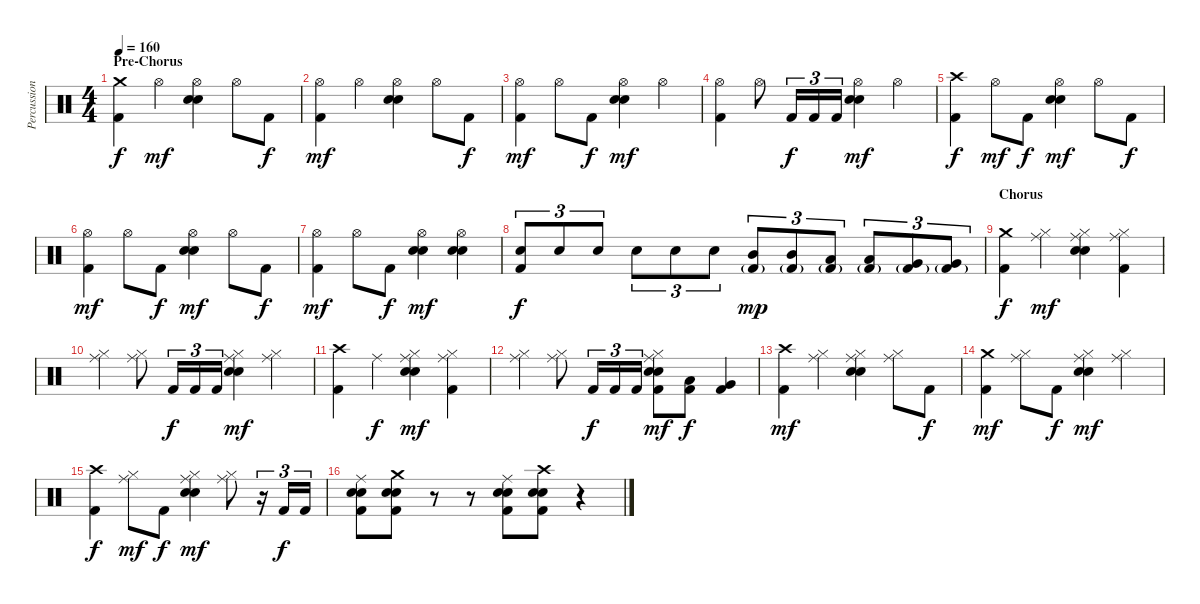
\track ("Percussion" "Percussion") {instrument percussion}
\staff {score}
\articulation defaults
\ts (4 4)
\section ("" "Pre-Chorus")
\tempo 160
\clef neutral
\ks c
("Crash medium (hit)" "Kick (hit) 2").4{dy f} "Hi-Hat (open)".4{dy mf} ("Hi-Hat (open)" "Snare (hit) 2" "Electric Snare (hit)").4 "Hi-Hat (open)".8 "Kick (hit) 2".8{dy f} |
("Hi-Hat (open)" "Kick (hit) 2").4{dy mf} "Hi-Hat (open)".4 ("Hi-Hat (open)" "Snare (hit) 2" "Electric Snare (hit)").4 "Hi-Hat (open)".8 "Kick (hit) 2".8{dy f} |
("Hi-Hat (open)" "Kick (hit) 2").4{dy mf} "Hi-Hat (open)".8 "Kick (hit) 2".8{dy f} ("Hi-Hat (open)" "Snare (hit) 2" "Electric Snare (hit)").4{dy mf} "Hi-Hat (open)".4 |
("Hi-Hat (open)" "Kick (hit) 2").4 "Hi-Hat (open)".8 "Kick (hit) 2".16{tu (3 2) dy f} "Kick (hit) 2".16{tu (3 2)} "Kick (hit) 2".16{tu (3 2)} ("Hi-Hat (open)" "Snare (hit) 2" "Electric Snare (hit)").4{dy mf} "Hi-Hat (open)".4 |
("Crash high (hit)" "Kick (hit) 2").4{dy f} "Hi-Hat (open)".8{dy mf} "Kick (hit) 2".8{dy f} ("Hi-Hat (open)" "Snare (hit) 2" "Electric Snare (hit)").4{dy mf} "Hi-Hat (open)".8 "Kick (hit) 2".8{dy f} |
("Hi-Hat (open)" "Kick (hit) 2").4{dy mf} "Hi-Hat (open)".8 "Kick (hit) 2".8{dy f} ("Hi-Hat (open)" "Snare (hit) 2" "Electric Snare (hit)").4{dy mf} "Hi-Hat (open)".8 "Kick (hit) 2".8{dy f} |
("Hi-Hat (open)" "Kick (hit) 2").4{dy mf} "Hi-Hat (open)".8 "Kick (hit) 2".8{dy f} ("Hi-Hat (open)" "Snare (hit) 2" "Electric Snare (hit)").4{dy mf} ("Hi-Hat (open)" "Snare (hit) 2" "Electric Snare (hit)").4 |
("Snare (hit) 2" "Kick (hit) 2").8{tu (3 2) dy f} "Snare (hit) 2".8{tu (3 2)} "Snare (hit) 2".8{tu (3 2)} "Snare (hit) 2".8{tu (3 2)} "Snare (hit) 2".8{tu (3 2)} "Snare (hit) 2".8{tu (3 2)} ("Mid Tom (hit)" "Kick (hit) 2"{g}).8{tu (3 2) dy mp} ("Mid Tom (hit)" "Kick (hit) 2"{g}).8{tu (3 2)} ("Low Tom (hit)" "Kick (hit) 2"{g}).8{tu (3 2)} ("Low Tom (hit)" "Kick (hit) 2"{g}).8{tu (3 2)} ("Very Low Tom (hit)" "Kick (hit) 2"{g}).8{tu (3 2)} ("Very Low Tom (hit)" "Kick (hit) 2"{g}).8{tu (3 2)} |
\section ("" "Chorus")
("Crash medium (hit)" "Kick (hit) 2").4{dy f} ("Ride (middle)" "Hi-Hat (closed)").4{dy mf} ("Ride (middle)" "Hi-Hat (closed)" "Snare (hit) 2" "Electric Snare (hit)").4 ("Ride (middle)" "Hi-Hat (closed)" "Kick (hit) 2").4 |
("Ride (middle)" "Hi-Hat (closed)").4 ("Ride (middle)" "Hi-Hat (closed)").8 "Kick (hit) 2".16{tu (3 2) dy f} "Kick (hit) 2".16{tu (3 2)} "Kick (hit) 2".16{tu (3 2)} ("Ride (middle)" "Hi-Hat (closed)" "Snare (hit) 2" "Electric Snare (hit)").4{dy mf} ("Ride (middle)" "Hi-Hat (closed)").4 |
("Crash high (hit)" "Kick (hit) 2").4 "Ride (middle)".4{dy f} ("Ride (middle)" "Hi-Hat (closed)" "Snare (hit) 2" "Electric Snare (hit)").4{dy mf} ("Ride (middle)" "Hi-Hat (closed)" "Kick (hit) 2").4 |
("Ride (middle)" "Hi-Hat (closed)").4 ("Ride (middle)" "Hi-Hat (closed)").8 "Kick (hit) 2".16{tu (3 2) dy f} "Kick (hit) 2".16{tu (3 2)} "Kick (hit) 2".16{tu (3 2)} ("Ride (middle)" "Hi-Hat (closed)" "Snare (hit) 2" "Electric Snare (hit)" "Kick (hit) 2").8{dy mf} ("Low Tom (hit)" "Kick (hit) 2").8{dy f} ("Very Low Tom (hit)" "Kick (hit) 2").4 |
("Crash high (hit)" "Kick (hit) 2").4{dy mf} ("Ride (middle)" "Hi-Hat (closed)").4 ("Ride (middle)" "Hi-Hat (closed)" "Snare (hit) 2" "Electric Snare (hit)").4 ("Ride (middle)" "Hi-Hat (closed)").8 "Kick (hit) 2".8{dy f} |
("Crash medium (hit)" "Kick (hit) 2").4{dy mf} ("Ride (middle)" "Hi-Hat (closed)").8 "Kick (hit) 2".8{dy f} ("Ride (middle)" "Hi-Hat (closed)" "Snare (hit) 2" "Electric Snare (hit)").4{dy mf} ("Ride (middle)" "Hi-Hat (closed)").4 |
("Crash high (hit)" "Kick (hit) 2").4{dy f} ("Ride (middle)" "Hi-Hat (closed)").8{dy mf} "Kick (hit) 2".8{dy f} ("Ride (middle)" "Hi-Hat (closed)" "Snare (hit) 2" "Electric Snare (hit)").4{dy mf} ("Ride (middle)" "Hi-Hat (closed)").8 r.16{tu (3 2)} "Kick (hit) 2".16{tu (3 2) dy f} "Kick (hit) 2".16{tu (3 2)} |
("Ride (middle)" "Snare (hit) 2" "Electric Snare (hit)" "Kick (hit) 2").8 ("Crash medium (hit)" "Snare (hit) 2" "Electric Snare (hit)" "Kick (hit) 2").8 r.8 r.8 ("Ride (middle)" "Snare (hit) 2" "Electric Snare (hit)" "Kick (hit) 2").8 ("Crash high (hit)" "Snare (hit) 2" "Electric Snare (hit)" "Kick (hit) 2").8 r.4
